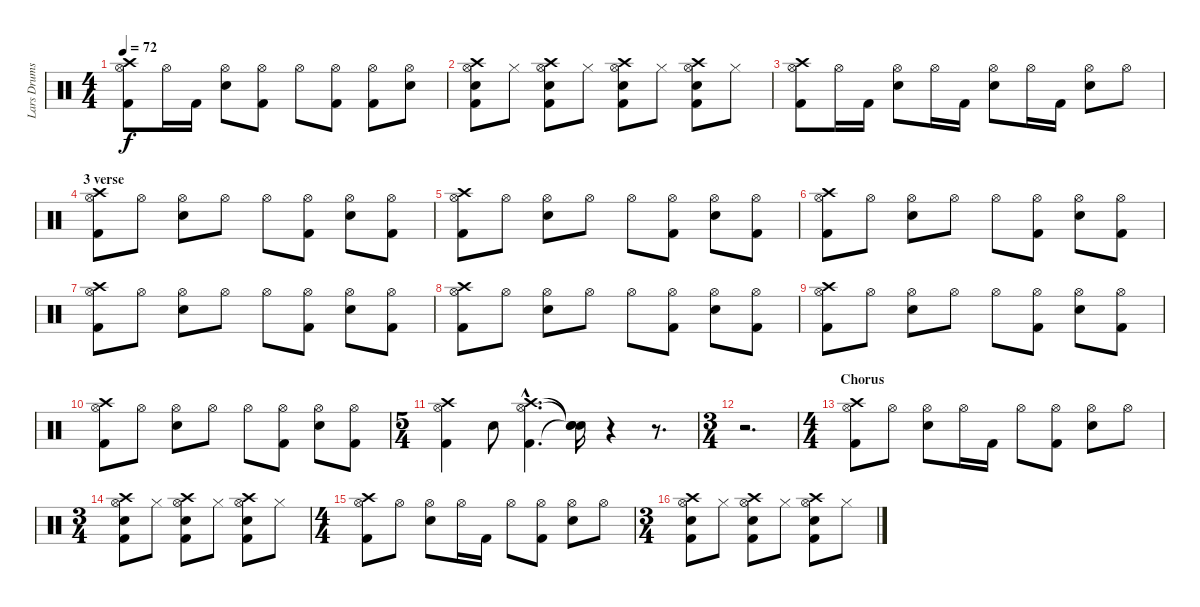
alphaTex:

\track ("Lars Drums" "Lars Drums") {instrument percussion}
\staff {score}
\articulation defaults
\ts (4 4)
\tempo 72
\clef neutral
\ks c
("Kick (hit) 2" "Hi-Hat (open)" "Crash high (hit)").8{dy f} "Hi-Hat (open)".16 "Kick (hit) 2".16 ("Snare (hit) 2" "Hi-Hat (open)").8 ("Kick (hit) 2" "Hi-Hat (open)").8 "Hi-Hat (open)".8 ("Kick (hit) 2" "Hi-Hat (open)").8 ("Kick (hit) 2" "Hi-Hat (open)").8 ("Snare (hit) 2" "Hi-Hat (open)").8 |
("Kick (hit) 2" "Snare (hit) 2" "Hi-Hat (open)" "Crash high (hit)").8 "Hi-Hat (closed)".8 ("Kick (hit) 2" "Snare (hit) 2" "Hi-Hat (open)" "Crash high (hit)").8 "Hi-Hat (closed)".8 ("Kick (hit) 2" "Snare (hit) 2" "Hi-Hat (open)" "Crash high (hit)").8 "Hi-Hat (closed)".8 ("Kick (hit) 2" "Snare (hit) 2" "Hi-Hat (open)" "Crash high (hit)").8 "Hi-Hat (closed)".8 |
("Kick (hit) 2" "Hi-Hat (open)" "Crash high (hit)").8 "Hi-Hat (open)".16 "Kick (hit) 2".16 ("Snare (hit) 2" "Hi-Hat (open)").8 "Hi-Hat (open)".16 "Kick (hit) 2".16 ("Snare (hit) 2" "Hi-Hat (open)").8 "Hi-Hat (open)".16 "Kick (hit) 2".16 ("Snare (hit) 2" "Hi-Hat (open)").8 "Hi-Hat (open)".8 |
\section ("" "3 verse")
("Kick (hit) 2" "Hi-Hat (open)" "Crash high (hit)").8 "Hi-Hat (open)".8 ("Snare (hit) 2" "Hi-Hat (open)").8 "Hi-Hat (open)".8 "Hi-Hat (open)".8 ("Kick (hit) 2" "Hi-Hat (open)").8 ("Snare (hit) 2" "Hi-Hat (open)").8 ("Kick (hit) 2" "Hi-Hat (open)").8 |
("Kick (hit) 2" "Hi-Hat (open)" "Crash high (hit)").8 "Hi-Hat (open)".8 ("Snare (hit) 2" "Hi-Hat (open)").8 "Hi-Hat (open)".8 "Hi-Hat (open)".8 ("Kick (hit) 2" "Hi-Hat (open)").8 ("Snare (hit) 2" "Hi-Hat (open)").8 ("Kick (hit) 2" "Hi-Hat (open)").8 |
("Kick (hit) 2" "Hi-Hat (open)" "Crash high (hit)").8 "Hi-Hat (open)".8 ("Snare (hit) 2" "Hi-Hat (open)").8 "Hi-Hat (open)".8 "Hi-Hat (open)".8 ("Kick (hit) 2" "Hi-Hat (open)").8 ("Snare (hit) 2" "Hi-Hat (open)").8 ("Kick (hit) 2" "Hi-Hat (open)").8 |
("Kick (hit) 2" "Hi-Hat (open)" "Crash high (hit)").8 "Hi-Hat (open)".8 ("Snare (hit) 2" "Hi-Hat (open)").8 "Hi-Hat (open)".8 "Hi-Hat (open)".8 ("Kick (hit) 2" "Hi-Hat (open)").8 ("Snare (hit) 2" "Hi-Hat (open)").8 ("Kick (hit) 2" "Hi-Hat (open)").8 |
("Kick (hit) 2" "Hi-Hat (open)" "Crash high (hit)").8 "Hi-Hat (open)".8 ("Snare (hit) 2" "Hi-Hat (open)").8 "Hi-Hat (open)".8 "Hi-Hat (open)".8 ("Kick (hit) 2" "Hi-Hat (open)").8 ("Snare (hit) 2" "Hi-Hat (open)").8 ("Kick (hit) 2" "Hi-Hat (open)").8 |
("Kick (hit) 2" "Hi-Hat (open)" "Crash high (hit)").8 "Hi-Hat (open)".8 ("Snare (hit) 2" "Hi-Hat (open)").8 "Hi-Hat (open)".8 "Hi-Hat (open)".8 ("Kick (hit) 2" "Hi-Hat (open)").8 ("Snare (hit) 2" "Hi-Hat (open)").8 ("Kick (hit) 2" "Hi-Hat (open)").8 |
("Kick (hit) 2" "Hi-Hat (open)" "Crash high (hit)").8 "Hi-Hat (open)".8 ("Snare (hit) 2" "Hi-Hat (open)").8 "Hi-Hat (open)".8 "Hi-Hat (open)".8 ("Kick (hit) 2" "Hi-Hat (open)").8 ("Snare (hit) 2" "Hi-Hat (open)").8 ("Kick (hit) 2" "Hi-Hat (open)").8 |
\ts (5 4)
("Kick (hit) 2" "Hi-Hat (open)" "Crash high (hit)").4 "Snare (hit) 2".8 ("Kick (hit) 2"{hac} "Hi-Hat (open)"{hac} "Crash high (hit)"{hac}).4{d} ("Snare (hit)"{t} "Snare (hit)"{t} "Snare (hit)"{t}).16 r.4 r.8{d} |
\ts (3 4)
r.2{d} |
\ts (4 4)
\section ("" "Chorus")
("Kick (hit) 2" "Hi-Hat (open)" "Crash high (hit)").8 "Hi-Hat (open)".8 ("Snare (hit) 2" "Hi-Hat (open)").8 "Hi-Hat (open)".16 "Kick (hit) 2".16 "Hi-Hat (open)".8 ("Kick (hit) 2" "Hi-Hat (open)").8 ("Snare (hit) 2" "Hi-Hat (open)").8 "Hi-Hat (open)".8 |
\ts (3 4)
("Kick (hit) 2" "Snare (hit) 2" "Hi-Hat (open)" "Crash high (hit)").8 "Hi-Hat (closed)".8 ("Kick (hit) 2" "Snare (hit) 2" "Hi-Hat (open)" "Crash high (hit)").8 "Hi-Hat (closed)".8 ("Kick (hit) 2" "Snare (hit) 2" "Hi-Hat (open)" "Crash high (hit)").8 "Hi-Hat (closed)".8 |
\ts (4 4)
("Kick (hit) 2" "Hi-Hat (open)" "Crash high (hit)").8 "Hi-Hat (open)".8 ("Snare (hit) 2" "Hi-Hat (open)").8 "Hi-Hat (open)".16 "Kick (hit) 2".16 "Hi-Hat (open)".8 ("Kick (hit) 2" "Hi-Hat (open)").8 ("Snare (hit) 2" "Hi-Hat (open)").8 "Hi-Hat (open)".8 |
\ts (3 4)
("Kick (hit) 2" "Snare (hit) 2" "Hi-Hat (open)" "Crash high (hit)").8 "Hi-Hat (closed)".8 ("Kick (hit) 2" "Snare (hit) 2" "Hi-Hat (open)" "Crash high (hit)").8 "Hi-Hat (closed)".8 ("Kick (hit) 2" "Snare (hit) 2" "Hi-Hat (open)" "Crash high (hit)").8 "Hi-Hat (closed)".8
